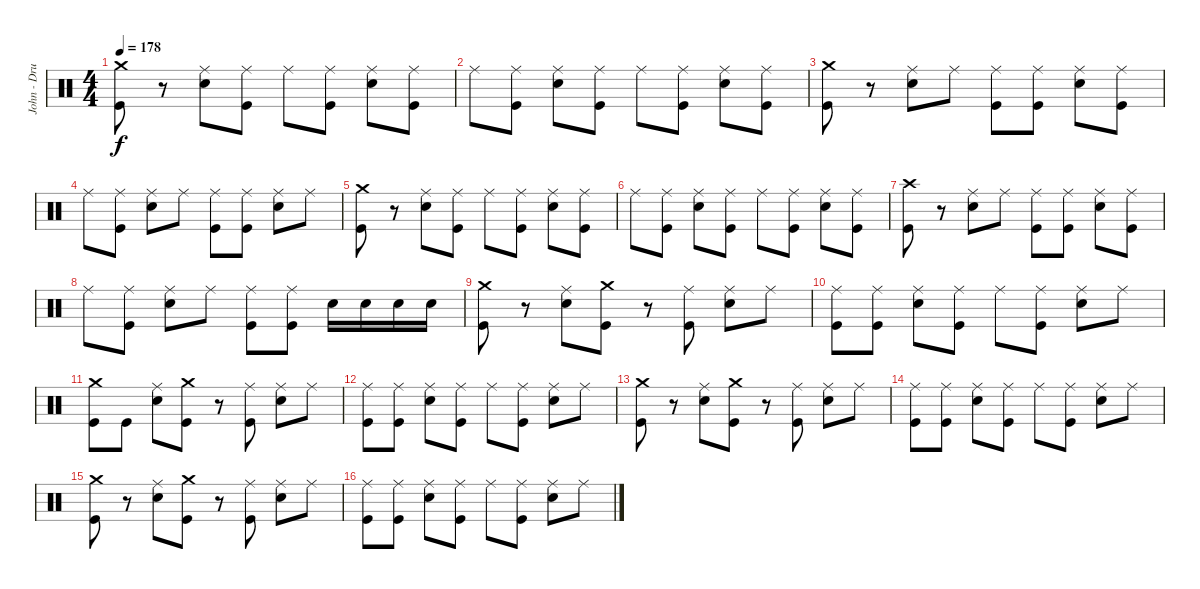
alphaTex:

\track ("John - Drums" "John - Dru") {instrument percussion}
\staff {score}
\articulation defaults
\ts (4 4)
\tempo 178
\clef neutral
\ks c
("Crash medium (hit)" "Kick (hit)").8{dy f} r.8 ("Ride (middle)" "Electric Snare (hit)").8 ("Ride (middle)" "Kick (hit)").8 "Ride (middle)".8 ("Ride (middle)" "Kick (hit)").8 ("Ride (middle)" "Electric Snare (hit)").8 ("Ride (middle)" "Kick (hit)").8 |
"Ride (middle)".8 ("Ride (middle)" "Kick (hit)").8 ("Ride (middle)" "Electric Snare (hit)").8 ("Ride (middle)" "Kick (hit)").8 "Ride (middle)".8 ("Ride (middle)" "Kick (hit)").8 ("Ride (middle)" "Electric Snare (hit)").8 ("Ride (middle)" "Kick (hit)").8 |
("Crash medium (hit)" "Kick (hit)").8 r.8 ("Ride (middle)" "Electric Snare (hit)").8 "Ride (middle)".8 ("Ride (middle)" "Kick (hit)").8 ("Ride (middle)" "Kick (hit)").8 ("Ride (middle)" "Electric Snare (hit)").8 ("Ride (middle)" "Kick (hit)").8 |
"Ride (middle)".8 ("Ride (middle)" "Kick (hit)").8 ("Ride (middle)" "Electric Snare (hit)").8 "Ride (middle)".8 ("Ride (middle)" "Kick (hit)").8 ("Ride (middle)" "Kick (hit)").8 ("Ride (middle)" "Electric Snare (hit)").8 "Ride (middle)".8 |
("Crash medium (hit)" "Kick (hit)").8 r.8 ("Ride (middle)" "Electric Snare (hit)").8 ("Ride (middle)" "Kick (hit)").8 "Ride (middle)".8 ("Ride (middle)" "Kick (hit)").8 ("Ride (middle)" "Electric Snare (hit)").8 ("Ride (middle)" "Kick (hit)").8 |
"Ride (middle)".8 ("Ride (middle)" "Kick (hit)").8 ("Ride (middle)" "Electric Snare (hit)").8 ("Ride (middle)" "Kick (hit)").8 "Ride (middle)".8 ("Ride (middle)" "Kick (hit)").8 ("Ride (middle)" "Electric Snare (hit)").8 ("Ride (middle)" "Kick (hit)").8 |
("Crash high (hit)" "Kick (hit)").8 r.8 ("Ride (middle)" "Electric Snare (hit)").8 "Ride (middle)".8 ("Ride (middle)" "Kick (hit)").8 ("Ride (middle)" "Kick (hit)").8 ("Ride (middle)" "Electric Snare (hit)").8 ("Ride (middle)" "Kick (hit)").8 |
"Ride (middle)".8 ("Ride (middle)" "Kick (hit)").8 ("Ride (middle)" "Electric Snare (hit)").8 "Ride (middle)".8 ("Ride (middle)" "Kick (hit)").8 ("Ride (middle)" "Kick (hit)").8 "Electric Snare (hit)".16 "Electric Snare (hit)".16 "Electric Snare (hit)".16 "Electric Snare (hit)".16 |
("Crash medium (hit)" "Kick (hit)").8 r.8 ("Ride (middle)" "Electric Snare (hit)").8 ("Crash medium (hit)" "Kick (hit)").8 r.8 ("Ride (middle)" "Kick (hit)").8 ("Ride (middle)" "Electric Snare (hit)").8 "Ride (middle)".8 |
("Ride (middle)" "Kick (hit)").8 ("Ride (middle)" "Kick (hit)").8 ("Ride (middle)" "Electric Snare (hit)").8 ("Ride (middle)" "Kick (hit)").8 "Ride (middle)".8 ("Ride (middle)" "Kick (hit)").8 ("Ride (middle)" "Electric Snare (hit)").8 "Ride (middle)".8 |
("Crash medium (hit)" "Kick (hit)").8 "Kick (hit)".8 ("Ride (middle)" "Electric Snare (hit)").8 ("Crash medium (hit)" "Kick (hit)").8 r.8 ("Ride (middle)" "Kick (hit)").8 ("Ride (middle)" "Electric Snare (hit)").8 "Ride (middle)".8 |
("Ride (middle)" "Kick (hit)").8 ("Ride (middle)" "Kick (hit)").8 ("Ride (middle)" "Electric Snare (hit)").8 ("Ride (middle)" "Kick (hit)").8 "Ride (middle)".8 ("Ride (middle)" "Kick (hit)").8 ("Ride (middle)" "Electric Snare (hit)").8 "Ride (middle)".8 |
("Crash medium (hit)" "Kick (hit)").8 r.8 ("Ride (middle)" "Electric Snare (hit)").8 ("Crash medium (hit)" "Kick (hit)").8 r.8 ("Ride (middle)" "Kick (hit)").8 ("Ride (middle)" "Electric Snare (hit)").8 "Ride (middle)".8 |
("Ride (middle)" "Kick (hit)").8 ("Ride (middle)" "Kick (hit)").8 ("Ride (middle)" "Electric Snare (hit)").8 ("Ride (middle)" "Kick (hit)").8 "Ride (middle)".8 ("Ride (middle)" "Kick (hit)").8 ("Ride (middle)" "Electric Snare (hit)").8 "Ride (middle)".8 |
("Crash medium (hit)" "Kick (hit)").8 r.8 ("Ride (middle)" "Electric Snare (hit)").8 ("Crash medium (hit)" "Kick (hit)").8 r.8 ("Ride (middle)" "Kick (hit)").8 ("Ride (middle)" "Electric Snare (hit)").8 "Ride (middle)".8 |
("Ride (middle)" "Kick (hit)").8 ("Ride (middle)" "Kick (hit)").8 ("Ride (middle)" "Electric Snare (hit)").8 ("Ride (middle)" "Kick (hit)").8 "Ride (middle)".8 ("Ride (middle)" "Kick (hit)").8 ("Ride (middle)" "Electric Snare (hit)").8 "Ride (middle)".8
